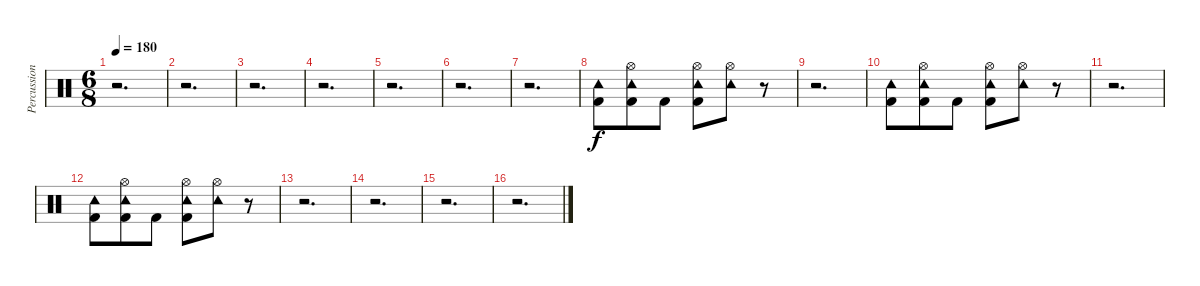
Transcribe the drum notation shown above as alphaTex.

\track ("Percussion" "Percussion") {instrument percussion}
\staff {score}
\articulation defaults
\ts (6 8)
\tempo 180
\clef neutral
\ks c
r.2{d dy f} |
r.2{d} |
r.2{d} |
r.2{d} |
r.2{d} |
r.2{d} |
r.2{d} |
("Kick (hit) 2" "Tambourine (hit)").8 ("Kick (hit) 2" "Hi-Hat (open)" "Tambourine (hit)").8 "Kick (hit) 2".8 ("Kick (hit) 2" "Hi-Hat (open)" "Tambourine (hit)").8 ("Hi-Hat (open)" "Tambourine (hit)").8 r.8 |
r.2{d} |
("Kick (hit) 2" "Tambourine (hit)").8 ("Kick (hit) 2" "Hi-Hat (open)" "Tambourine (hit)").8 "Kick (hit) 2".8 ("Kick (hit) 2" "Hi-Hat (open)" "Tambourine (hit)").8 ("Hi-Hat (open)" "Tambourine (hit)").8 r.8 |
r.2{d} |
("Kick (hit) 2" "Tambourine (hit)").8 ("Kick (hit) 2" "Hi-Hat (open)" "Tambourine (hit)").8 "Kick (hit) 2".8 ("Kick (hit) 2" "Hi-Hat (open)" "Tambourine (hit)").8 ("Hi-Hat (open)" "Tambourine (hit)").8 r.8 |
r.2{d} |
r.2{d} |
r.2{d} |
r.2{d}
